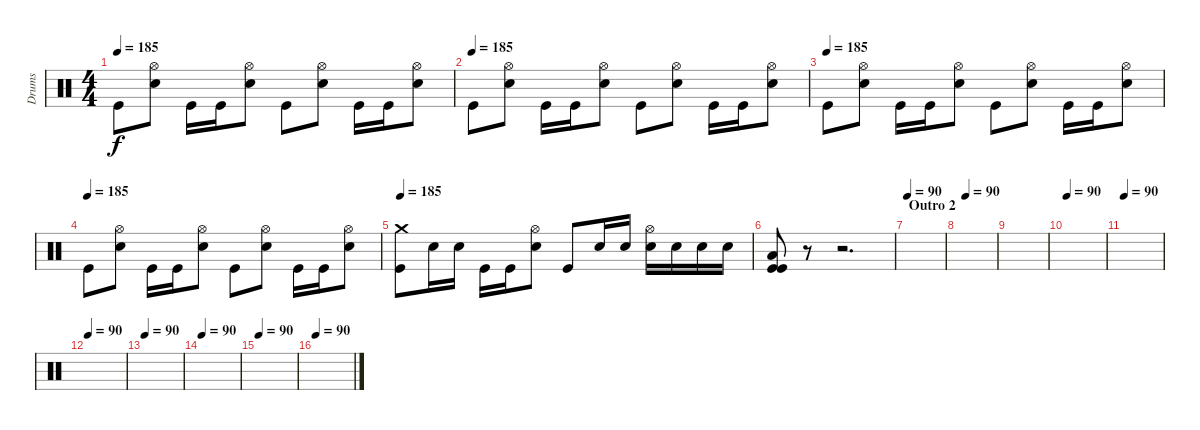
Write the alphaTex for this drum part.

\track ("Drums" "Drums") {instrument percussion}
\staff {score}
\articulation defaults
\ts (4 4)
\tempo 185
\clef neutral
\ks c "Kick (hit)".8{dy f}
("Hi-Hat (open)" "Electric Snare (hit)").8 "Kick (hit)".16 "Kick (hit)".16 ("Hi-Hat (open)" "Electric Snare (hit)").8 "Kick (hit)".8 ("Hi-Hat (open)" "Electric Snare (hit)").8 "Kick (hit)".16 "Kick (hit)".16 ("Hi-Hat (open)" "Electric Snare (hit)").8 |
\tempo (185)
"Kick (hit)".8 ("Hi-Hat (open)" "Electric Snare (hit)").8 "Kick (hit)".16 "Kick (hit)".16 ("Hi-Hat (open)" "Electric Snare (hit)").8 "Kick (hit)".8 ("Hi-Hat (open)" "Electric Snare (hit)").8 "Kick (hit)".16 "Kick (hit)".16 ("Hi-Hat (open)" "Electric Snare (hit)").8 |
\tempo (185)
"Kick (hit)".8 ("Hi-Hat (open)" "Electric Snare (hit)").8 "Kick (hit)".16 "Kick (hit)".16 ("Hi-Hat (open)" "Electric Snare (hit)").8 "Kick (hit)".8 ("Hi-Hat (open)" "Electric Snare (hit)").8 "Kick (hit)".16 "Kick (hit)".16 ("Hi-Hat (open)" "Electric Snare (hit)").8 |
\tempo (185)
"Kick (hit)".8 ("Hi-Hat (open)" "Electric Snare (hit)").8 "Kick (hit)".16 "Kick (hit)".16 ("Hi-Hat (open)" "Electric Snare (hit)").8 "Kick (hit)".8 ("Hi-Hat (open)" "Electric Snare (hit)").8 "Kick (hit)".16 "Kick (hit)".16 ("Hi-Hat (open)" "Electric Snare (hit)").8 |
\tempo 185
("Crash medium (hit)" "Kick (hit)").8 "Electric Snare (hit)".16 "Electric Snare (hit)".16 "Kick (hit)".16 "Kick (hit)".16 ("Hi-Hat (open)" "Electric Snare (hit)").8 "Kick (hit)".8 "Electric Snare (hit)".16 "Electric Snare (hit)".16 ("Hi-Hat (open)" "Electric Snare (hit)").16 "Electric Snare (hit)".16 "Electric Snare (hit)".16 "Electric Snare (hit)".16 |
("Low Tom (hit)" "Kick (hit)" "Kick (hit)").8 r.8 r.2{d} |
\section ("" "Outro 2 ")
\tempo 90
|
\tempo (90 0.1875)
|
|
\tempo 90
|
\tempo 90
|
\tempo 90
|
\tempo 90
|
\tempo 90
|
\tempo 90
|
\tempo 90
